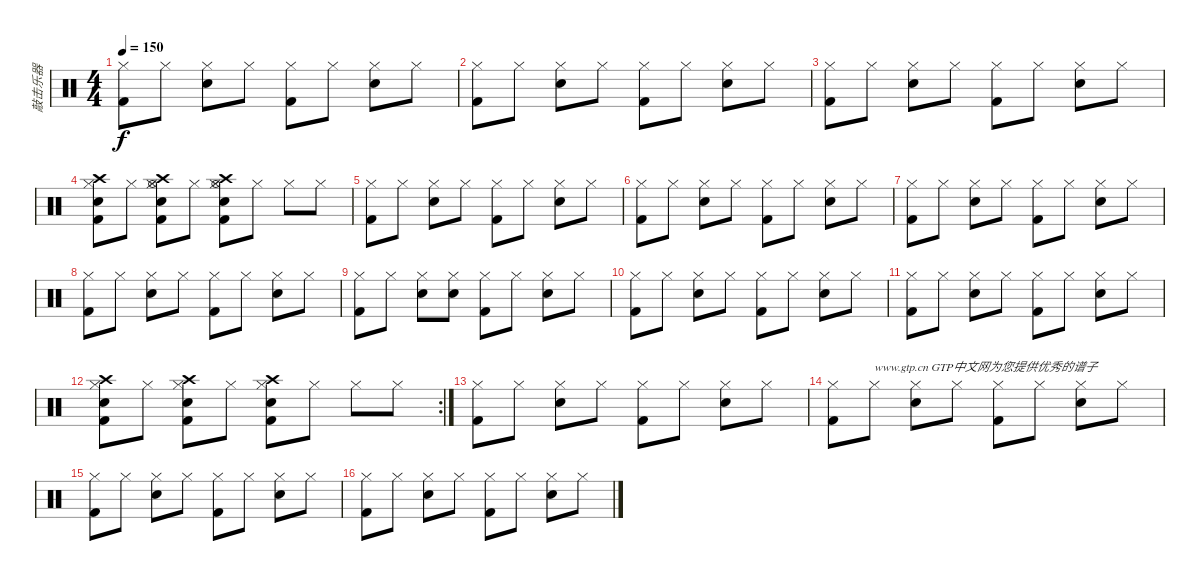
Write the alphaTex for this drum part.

\track ("敲击乐器" "敲击乐器") {instrument percussion}
\staff {score}
\articulation defaults
\ts (4 4)
\tempo 150
\clef neutral
\ks c
("Kick (hit) 2" "Hi-Hat (closed)").8{dy f} "Hi-Hat (closed)".8 ("Electric Snare (hit)" "Hi-Hat (closed)").8 "Hi-Hat (closed)".8 ("Kick (hit) 2" "Hi-Hat (closed)").8 "Hi-Hat (closed)".8 ("Electric Snare (hit)" "Hi-Hat (closed)").8 "Hi-Hat (closed)".8 |
("Kick (hit) 2" "Hi-Hat (closed)").8 "Hi-Hat (closed)".8 ("Electric Snare (hit)" "Hi-Hat (closed)").8 "Hi-Hat (closed)".8 ("Kick (hit) 2" "Hi-Hat (closed)").8 "Hi-Hat (closed)".8 ("Electric Snare (hit)" "Hi-Hat (closed)").8 "Hi-Hat (closed)".8 |
("Kick (hit) 2" "Hi-Hat (closed)").8 "Hi-Hat (closed)".8 ("Electric Snare (hit)" "Hi-Hat (closed)").8 "Hi-Hat (closed)".8 ("Kick (hit) 2" "Hi-Hat (closed)").8 "Hi-Hat (closed)".8 ("Electric Snare (hit)" "Hi-Hat (closed)").8 "Hi-Hat (closed)".8 |
("Kick (hit) 2" "Hi-Hat (closed)" "Crash high (hit)" "Electric Snare (hit)"{pm}).8 "Hi-Hat (closed)".8 ("Electric Snare (hit)" "Hi-Hat (closed)" "Kick (hit) 2" "Hi-Hat (open)"{pm} "Crash high (hit)"{pm}).8 "Hi-Hat (closed)".8 ("Kick (hit) 2" "Hi-Hat (closed)" "Electric Snare (hit)" "Hi-Hat (open)"{pm} "Crash high (hit)"{pm}).8 "Hi-Hat (closed)".8 "Hi-Hat (closed)".8 "Hi-Hat (closed)".8 |
("Kick (hit) 2" "Hi-Hat (closed)").8 "Hi-Hat (closed)".8 ("Electric Snare (hit)" "Hi-Hat (closed)").8 "Hi-Hat (closed)".8 ("Kick (hit) 2" "Hi-Hat (closed)").8 "Hi-Hat (closed)".8 ("Electric Snare (hit)" "Hi-Hat (closed)").8 "Hi-Hat (closed)".8 |
("Kick (hit) 2" "Hi-Hat (closed)").8 "Hi-Hat (closed)".8 ("Electric Snare (hit)" "Hi-Hat (closed)").8 "Hi-Hat (closed)".8 ("Kick (hit) 2" "Hi-Hat (closed)").8 "Hi-Hat (closed)".8 ("Electric Snare (hit)" "Hi-Hat (closed)").8 "Hi-Hat (closed)".8 |
("Kick (hit) 2" "Hi-Hat (closed)").8 "Hi-Hat (closed)".8 ("Electric Snare (hit)" "Hi-Hat (closed)").8 "Hi-Hat (closed)".8 ("Kick (hit) 2" "Hi-Hat (closed)").8 "Hi-Hat (closed)".8 ("Electric Snare (hit)" "Hi-Hat (closed)").8 "Hi-Hat (closed)".8 |
("Kick (hit) 2" "Hi-Hat (closed)").8 "Hi-Hat (closed)".8 ("Electric Snare (hit)" "Hi-Hat (closed)").8 "Hi-Hat (closed)".8 ("Kick (hit) 2" "Hi-Hat (closed)").8 "Hi-Hat (closed)".8 ("Electric Snare (hit)" "Hi-Hat (closed)").8 "Hi-Hat (closed)".8 |
("Kick (hit) 2" "Hi-Hat (closed)").8 "Hi-Hat (closed)".8 ("Electric Snare (hit)" "Hi-Hat (closed)").8 ("Hi-Hat (closed)" "Electric Snare (hit)").8 ("Kick (hit) 2" "Hi-Hat (closed)").8 "Hi-Hat (closed)".8 ("Electric Snare (hit)" "Hi-Hat (closed)").8 "Hi-Hat (closed)".8 |
("Kick (hit) 2" "Hi-Hat (closed)").8 "Hi-Hat (closed)".8 ("Electric Snare (hit)" "Hi-Hat (closed)").8 "Hi-Hat (closed)".8 ("Kick (hit) 2" "Hi-Hat (closed)").8 "Hi-Hat (closed)".8 ("Electric Snare (hit)" "Hi-Hat (closed)").8 "Hi-Hat (closed)".8 |
("Kick (hit) 2" "Hi-Hat (closed)").8 "Hi-Hat (closed)".8 ("Electric Snare (hit)" "Hi-Hat (closed)").8 "Hi-Hat (closed)".8 ("Kick (hit) 2" "Hi-Hat (closed)").8 "Hi-Hat (closed)".8 ("Electric Snare (hit)" "Hi-Hat (closed)").8 "Hi-Hat (closed)".8 |
\rc 2
("Kick (hit) 2" "Hi-Hat (closed)" "Crash high (hit)" "Electric Snare (hit)"{pm}).8 "Hi-Hat (closed)".8 ("Electric Snare (hit)" "Hi-Hat (closed)" "Kick (hit) 2" "Crash high (hit)"{pm}).8 "Hi-Hat (closed)".8 ("Electric Snare (hit)" "Hi-Hat (closed)" "Kick (hit) 2" "Crash high (hit)"{pm}).8 "Hi-Hat (closed)".8 "Hi-Hat (closed)".8 "Hi-Hat (closed)".8 |
("Kick (hit) 2" "Hi-Hat (closed)").8 "Hi-Hat (closed)".8 ("Electric Snare (hit)" "Hi-Hat (closed)").8 "Hi-Hat (closed)".8 ("Kick (hit) 2" "Hi-Hat (closed)").8 "Hi-Hat (closed)".8 ("Electric Snare (hit)" "Hi-Hat (closed)").8 "Hi-Hat (closed)".8 |
("Kick (hit) 2" "Hi-Hat (closed)").8 "Hi-Hat (closed)".8{txt "www.gtp.cn GTP中文网为您提供优秀的谱子"} ("Electric Snare (hit)" "Hi-Hat (closed)").8 "Hi-Hat (closed)".8 ("Kick (hit) 2" "Hi-Hat (closed)").8 "Hi-Hat (closed)".8 ("Electric Snare (hit)" "Hi-Hat (closed)").8 "Hi-Hat (closed)".8 |
("Kick (hit) 2" "Hi-Hat (closed)").8 "Hi-Hat (closed)".8 ("Electric Snare (hit)" "Hi-Hat (closed)").8 "Hi-Hat (closed)".8 ("Kick (hit) 2" "Hi-Hat (closed)").8 "Hi-Hat (closed)".8 ("Electric Snare (hit)" "Hi-Hat (closed)").8 "Hi-Hat (closed)".8 |
("Kick (hit) 2" "Hi-Hat (closed)").8 "Hi-Hat (closed)".8 ("Electric Snare (hit)" "Hi-Hat (closed)").8 "Hi-Hat (closed)".8 ("Kick (hit) 2" "Hi-Hat (closed)").8 "Hi-Hat (closed)".8 ("Electric Snare (hit)" "Hi-Hat (closed)").8 "Hi-Hat (closed)".8
